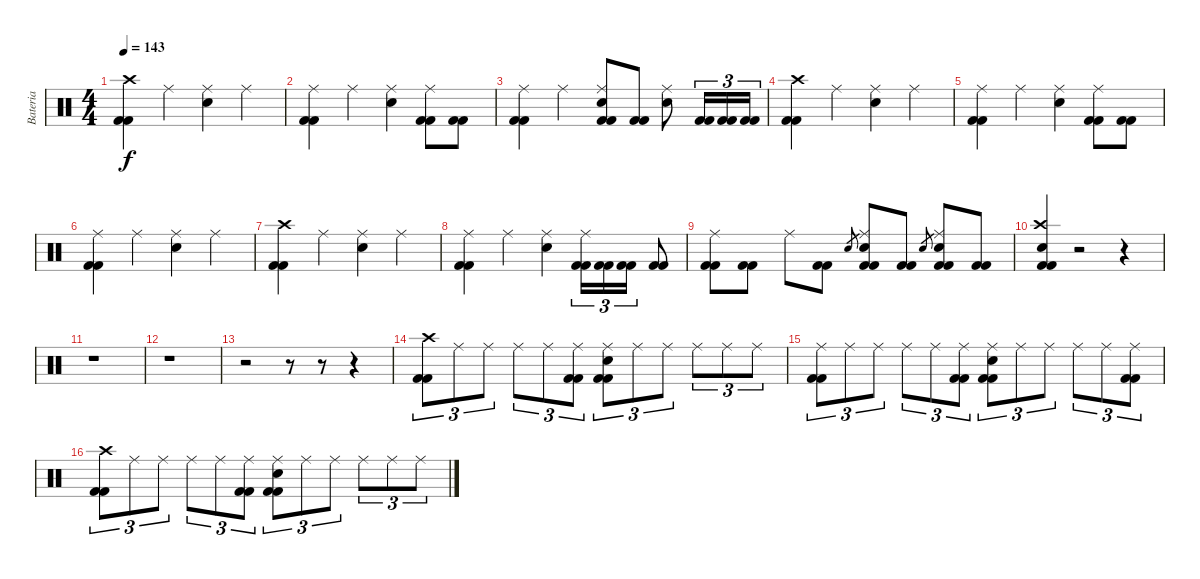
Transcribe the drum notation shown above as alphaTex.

\track ("Bateria" "Bateria") {instrument percussion}
\staff {score}
\articulation defaults
\ts (4 4)
\tempo 143
\clef neutral
\ks c
("Kick (hit) 2" "Kick (hit) 2" "Crash high (hit)").4{dy f} "Ride (middle)".4 ("Snare (hit) 2" "Ride (middle)").4 "Ride (middle)".4 |
("Kick (hit) 2" "Kick (hit) 2" "Ride (middle)").4 "Ride (middle)".4 ("Snare (hit) 2" "Ride (middle)").4 ("Kick (hit) 2" "Kick (hit) 2" "Ride (middle)").8 ("Kick (hit) 2" "Kick (hit) 2").8 |
("Kick (hit) 2" "Kick (hit) 2" "Ride (middle)").4 "Ride (middle)".4 ("Kick (hit) 2" "Kick (hit) 2" "Snare (hit) 2" "Ride (middle)").8 ("Kick (hit) 2" "Kick (hit) 2").8 ("Snare (hit) 2" "Ride (middle)").8 ("Kick (hit) 2" "Kick (hit) 2").16{tu (3 2)} ("Kick (hit) 2" "Kick (hit) 2").16{tu (3 2)} ("Kick (hit) 2" "Kick (hit) 2").16{tu (3 2)} |
("Kick (hit) 2" "Kick (hit) 2" "Crash high (hit)").4 "Ride (middle)".4 ("Snare (hit) 2" "Ride (middle)").4 "Ride (middle)".4 |
("Kick (hit) 2" "Kick (hit) 2" "Ride (middle)").4 "Ride (middle)".4 ("Snare (hit) 2" "Ride (middle)").4 ("Kick (hit) 2" "Kick (hit) 2" "Ride (middle)").8 ("Kick (hit) 2" "Kick (hit) 2").8 |
("Kick (hit) 2" "Kick (hit) 2" "Ride (middle)").4 "Ride (middle)".4 ("Snare (hit) 2" "Ride (middle)").4 "Ride (middle)".4 |
("Kick (hit) 2" "Kick (hit) 2" "Crash high (hit)").4 "Ride (middle)".4 ("Snare (hit) 2" "Ride (middle)").4 "Ride (middle)".4 |
("Kick (hit) 2" "Kick (hit) 2" "Ride (middle)").4 "Ride (middle)".4 ("Snare (hit) 2" "Ride (middle)").4 ("Kick (hit) 2" "Kick (hit) 2" "Ride (middle)").16{tu (3 2)} ("Kick (hit) 2" "Kick (hit) 2").16{tu (3 2)} ("Kick (hit) 2" "Kick (hit) 2").16{tu (3 2)} ("Kick (hit) 2" "Kick (hit) 2").8 |
("Kick (hit) 2" "Kick (hit) 2" "Ride (middle)").8 ("Kick (hit) 2" "Kick (hit) 2").8 "Ride (middle)".8 ("Kick (hit) 2" "Kick (hit) 2").8 "Snare (hit) 2".8{gr} ("Kick (hit) 2" "Kick (hit) 2" "Snare (hit) 2" "Ride (middle)").8 ("Kick (hit) 2" "Kick (hit) 2").8 "Snare (hit) 2".8{gr} ("Kick (hit) 2" "Kick (hit) 2" "Snare (hit) 2" "Ride (middle)").8 ("Kick (hit) 2" "Kick (hit) 2").8 |
("Kick (hit) 2" "Kick (hit) 2" "Snare (hit) 2" "Crash high (hit)").4 r.2 r.4 |
r.1 |
r.1 |
r.2 r.8 r.8 r.4 |
("Kick (hit) 2" "Kick (hit) 2" "Crash high (hit)").8{tu (3 2)} "Ride (middle)".8{tu (3 2)} "Ride (middle)".8{tu (3 2)} "Ride (middle)".8{tu (3 2)} "Ride (middle)".8{tu (3 2)} ("Kick (hit) 2" "Kick (hit) 2" "Ride (middle)").8{tu (3 2)} ("Kick (hit) 2" "Kick (hit) 2" "Snare (hit) 2" "Ride (middle)").8{tu (3 2)} "Ride (middle)".8{tu (3 2)} "Ride (middle)".8{tu (3 2)} "Ride (middle)".8{tu (3 2)} "Ride (middle)".8{tu (3 2)} "Ride (middle)".8{tu (3 2)} |
("Kick (hit) 2" "Kick (hit) 2" "Ride (middle)").8{tu (3 2)} "Ride (middle)".8{tu (3 2)} "Ride (middle)".8{tu (3 2)} "Ride (middle)".8{tu (3 2)} "Ride (middle)".8{tu (3 2)} ("Kick (hit) 2" "Kick (hit) 2" "Ride (middle)").8{tu (3 2)} ("Kick (hit) 2" "Kick (hit) 2" "Snare (hit) 2" "Ride (middle)").8{tu (3 2)} "Ride (middle)".8{tu (3 2)} "Ride (middle)".8{tu (3 2)} "Ride (middle)".8{tu (3 2)} "Ride (middle)".8{tu (3 2)} ("Kick (hit) 2" "Kick (hit) 2" "Ride (middle)").8{tu (3 2)} |
("Kick (hit) 2" "Kick (hit) 2" "Crash high (hit)").8{tu (3 2)} "Ride (middle)".8{tu (3 2)} "Ride (middle)".8{tu (3 2)} "Ride (middle)".8{tu (3 2)} "Ride (middle)".8{tu (3 2)} ("Kick (hit) 2" "Kick (hit) 2" "Ride (middle)").8{tu (3 2)} ("Kick (hit) 2" "Kick (hit) 2" "Snare (hit) 2" "Ride (middle)").8{tu (3 2)} "Ride (middle)".8{tu (3 2)} "Ride (middle)".8{tu (3 2)} "Ride (middle)".8{tu (3 2)} "Ride (middle)".8{tu (3 2)} "Ride (middle)".8{tu (3 2)}
